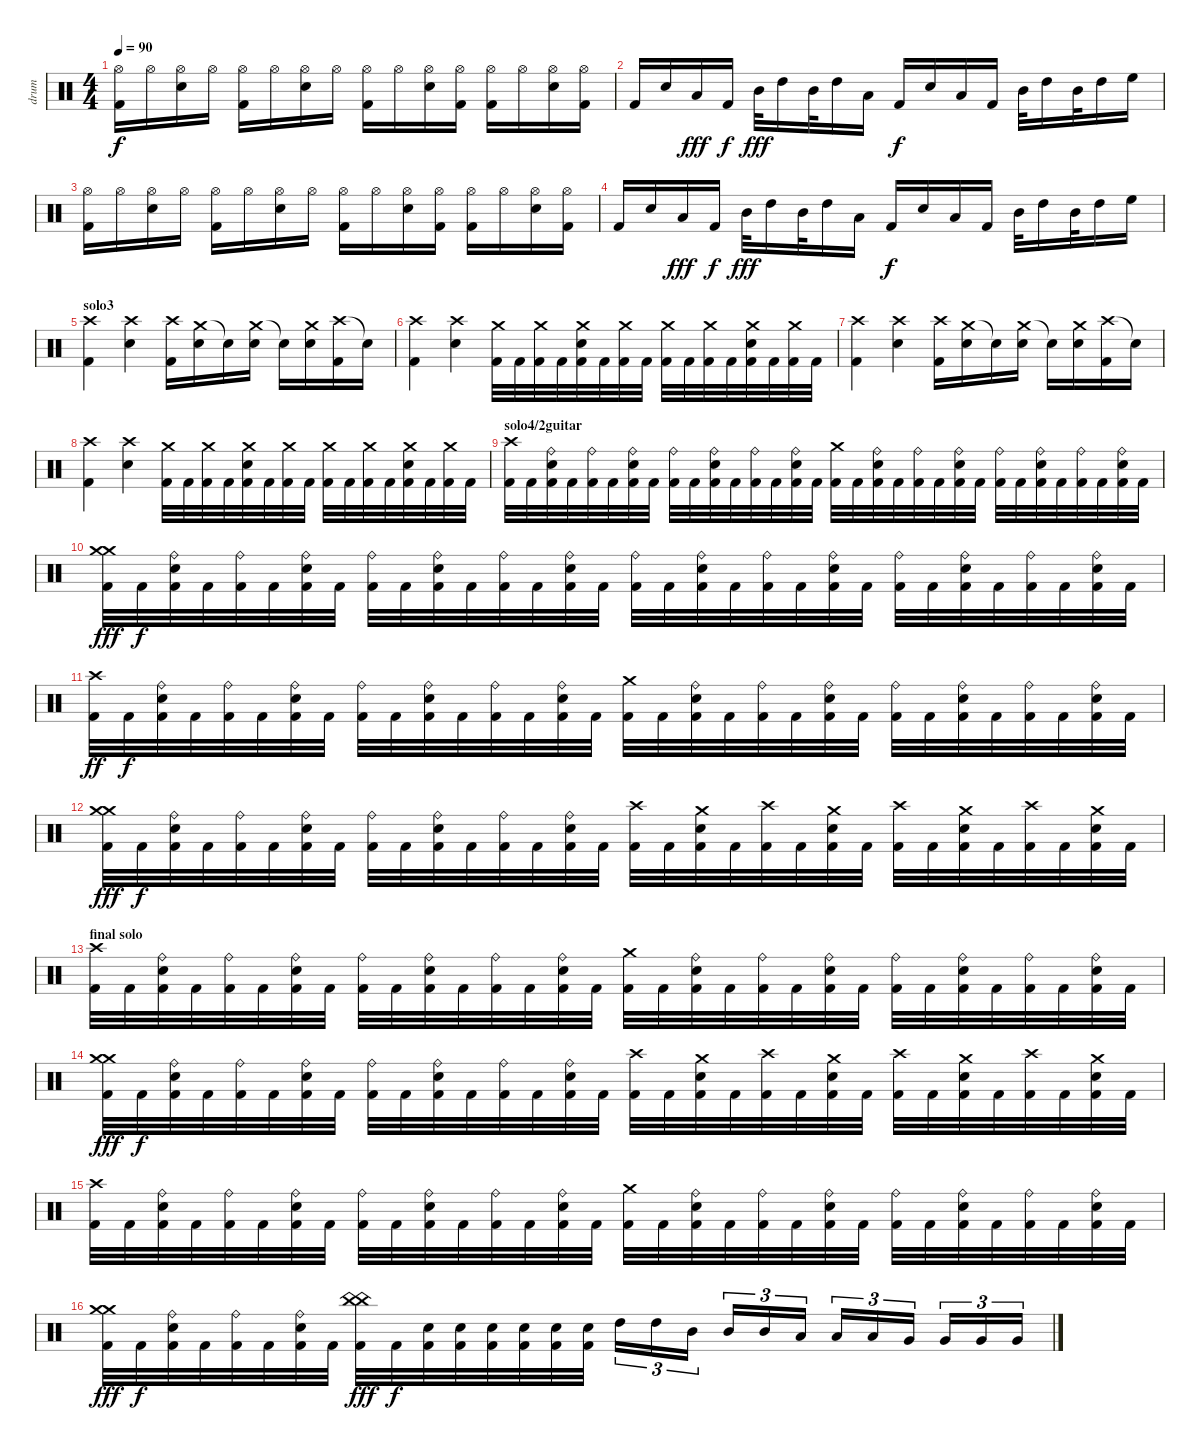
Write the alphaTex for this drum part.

\track ("drum" "drum") {instrument percussion}
\staff {score}
\articulation defaults
\ts (4 4)
\tempo 90
\clef neutral
\ks c
("Hi-Hat (open)" "Kick (hit) 2").16{dy f} "Hi-Hat (open)".16 ("Hi-Hat (open)" "Electric Snare (hit)").16 "Hi-Hat (open)".16 ("Hi-Hat (open)" "Kick (hit) 2").16 "Hi-Hat (open)".16 ("Hi-Hat (open)" "Electric Snare (hit)").16 "Hi-Hat (open)".16 ("Hi-Hat (open)" "Kick (hit) 2").16 "Hi-Hat (open)".16 ("Hi-Hat (open)" "Electric Snare (hit)").16 ("Hi-Hat (open)" "Kick (hit) 2").16 ("Hi-Hat (open)" "Kick (hit) 2").16 "Hi-Hat (open)".16 ("Hi-Hat (open)" "Electric Snare (hit)").16 ("Hi-Hat (open)" "Kick (hit) 2").16 |
"Kick (hit) 2".16 "Electric Snare (hit)".16 "Low Tom (hit)".16{dy fff} "Kick (hit) 2".16{dy f} "Mid Tom (hit)".32{dy fff} "High Tom (hit)".16 "Mid Tom (hit)".32 "High Tom (hit)".16 "Low Tom (hit)".16 "Kick (hit) 2".16{dy f} "Electric Snare (hit)".16 "Low Tom (hit)".16 "Kick (hit) 2".16 "Mid Tom (hit)".32 "High Tom (hit)".16 "Mid Tom (hit)".32 "High Tom (hit)".16 "High Floor Tom (hit)".16 |
("Hi-Hat (open)" "Kick (hit) 2").16 "Hi-Hat (open)".16 ("Hi-Hat (open)" "Electric Snare (hit)").16 "Hi-Hat (open)".16 ("Hi-Hat (open)" "Kick (hit) 2").16 "Hi-Hat (open)".16 ("Hi-Hat (open)" "Electric Snare (hit)").16 "Hi-Hat (open)".16 ("Hi-Hat (open)" "Kick (hit) 2").16 "Hi-Hat (open)".16 ("Hi-Hat (open)" "Electric Snare (hit)").16 ("Hi-Hat (open)" "Kick (hit) 2").16 ("Hi-Hat (open)" "Kick (hit) 2").16 "Hi-Hat (open)".16 ("Hi-Hat (open)" "Electric Snare (hit)").16 ("Hi-Hat (open)" "Kick (hit) 2").16 |
"Kick (hit) 2".16 "Electric Snare (hit)".16 "Low Tom (hit)".16{dy fff} "Kick (hit) 2".16{dy f} "Mid Tom (hit)".32{dy fff} "High Tom (hit)".16 "Mid Tom (hit)".32 "High Tom (hit)".16 "Low Tom (hit)".16 "Kick (hit) 2".16{dy f} "Electric Snare (hit)".16 "Low Tom (hit)".16 "Kick (hit) 2".16 "Mid Tom (hit)".32 "High Tom (hit)".16 "Mid Tom (hit)".32 "High Tom (hit)".16 "High Floor Tom (hit)".16 |
\section ("" "solo3")
("Crash high (hit)" "Kick (hit) 2").4 ("Crash high (hit)" "Electric Snare (hit)").4 ("Crash high (hit)" "Kick (hit) 2").16 ("Crash medium (hit)" "Electric Snare (hit)").16 "Snare (hit)"{t}.16 ("Crash medium (hit)" "Electric Snare (hit)").16 "Snare (hit)"{t}.16 ("Crash medium (hit)" "Electric Snare (hit)").16 ("Crash high (hit)" "Kick (hit) 2").16 "Snare (hit)"{t}.16 |
("Crash high (hit)" "Kick (hit) 2").4 ("Crash high (hit)" "Electric Snare (hit)").4 ("Crash medium (hit)" "Kick (hit) 2").32 "Kick (hit) 2".32 ("Crash medium (hit)" "Kick (hit) 2").32 "Kick (hit) 2".32 ("Crash medium (hit)" "Electric Snare (hit)" "Kick (hit) 2").32 "Kick (hit) 2".32 ("Crash medium (hit)" "Kick (hit) 2").32 "Kick (hit) 2".32 ("Crash medium (hit)" "Kick (hit) 2").32 "Kick (hit) 2".32 ("Crash medium (hit)" "Kick (hit) 2").32 "Kick (hit) 2".32 ("Crash medium (hit)" "Electric Snare (hit)" "Kick (hit) 2").32 "Kick (hit) 2".32 ("Crash medium (hit)" "Kick (hit) 2").32 "Kick (hit) 2".32 |
("Crash high (hit)" "Kick (hit) 2").4 ("Crash high (hit)" "Electric Snare (hit)").4 ("Crash high (hit)" "Kick (hit) 2").16 ("Crash medium (hit)" "Electric Snare (hit)").16 "Snare (hit)"{t}.16 ("Crash medium (hit)" "Electric Snare (hit)").16 "Snare (hit)"{t}.16 ("Crash medium (hit)" "Electric Snare (hit)").16 ("Crash high (hit)" "Kick (hit) 2").16 "Snare (hit)"{t}.16 |
("Crash high (hit)" "Kick (hit) 2").4 ("Crash high (hit)" "Electric Snare (hit)").4 ("Crash medium (hit)" "Kick (hit) 2").32 "Kick (hit) 2".32 ("Crash medium (hit)" "Kick (hit) 2").32 "Kick (hit) 2".32 ("Crash medium (hit)" "Electric Snare (hit)" "Kick (hit) 2").32 "Kick (hit) 2".32 ("Crash medium (hit)" "Kick (hit) 2").32 "Kick (hit) 2".32 ("Crash medium (hit)" "Kick (hit) 2").32 "Kick (hit) 2".32 ("Crash medium (hit)" "Kick (hit) 2").32 "Kick (hit) 2".32 ("Crash medium (hit)" "Electric Snare (hit)" "Kick (hit) 2").32 "Kick (hit) 2".32 ("Crash medium (hit)" "Kick (hit) 2").32 "Kick (hit) 2".32 |
\section ("" "solo4/2guitar")
("Crash high (hit)" "Kick (hit) 2").32 "Kick (hit) 2".32 ("Ride (bell)" "Electric Snare (hit)" "Kick (hit) 2").32 "Kick (hit) 2".32 ("Ride (bell)" "Kick (hit) 2").32 "Kick (hit) 2".32 ("Ride (bell)" "Electric Snare (hit)" "Kick (hit) 2").32 "Kick (hit) 2".32 ("Ride (bell)" "Kick (hit) 2").32 "Kick (hit) 2".32 ("Ride (bell)" "Electric Snare (hit)" "Kick (hit) 2").32 "Kick (hit) 2".32 ("Ride (bell)" "Kick (hit) 2").32 "Kick (hit) 2".32 ("Ride (bell)" "Electric Snare (hit)" "Kick (hit) 2").32 "Kick (hit) 2".32 ("Crash medium (hit)" "Kick (hit) 2").32 "Kick (hit) 2".32 ("Ride (bell)" "Electric Snare (hit)" "Kick (hit) 2").32 "Kick (hit) 2".32 ("Ride (bell)" "Kick (hit) 2").32 "Kick (hit) 2".32 ("Ride (bell)" "Electric Snare (hit)" "Kick (hit) 2").32 "Kick (hit) 2".32 ("Ride (bell)" "Kick (hit) 2").32 "Kick (hit) 2".32 ("Ride (bell)" "Electric Snare (hit)" "Kick (hit) 2").32 "Kick (hit) 2".32 ("Ride (bell)" "Kick (hit) 2").32 "Kick (hit) 2".32 ("Ride (bell)" "Electric Snare (hit)" "Kick (hit) 2").32 "Kick (hit) 2".32 |
("Crash medium (hit)" "Crash medium (hit)" "Kick (hit) 2").32{dy fff} "Kick (hit) 2".32{dy f} ("Ride (bell)" "Electric Snare (hit)" "Kick (hit) 2").32 "Kick (hit) 2".32 ("Ride (bell)" "Kick (hit) 2").32 "Kick (hit) 2".32 ("Ride (bell)" "Electric Snare (hit)" "Kick (hit) 2").32 "Kick (hit) 2".32 ("Ride (bell)" "Kick (hit) 2").32 "Kick (hit) 2".32 ("Ride (bell)" "Electric Snare (hit)" "Kick (hit) 2").32 "Kick (hit) 2".32 ("Ride (bell)" "Kick (hit) 2").32 "Kick (hit) 2".32 ("Ride (bell)" "Electric Snare (hit)" "Kick (hit) 2").32 "Kick (hit) 2".32 ("Ride (bell)" "Kick (hit) 2").32 "Kick (hit) 2".32 ("Ride (bell)" "Electric Snare (hit)" "Kick (hit) 2").32 "Kick (hit) 2".32 ("Ride (bell)" "Kick (hit) 2").32 "Kick (hit) 2".32 ("Ride (bell)" "Electric Snare (hit)" "Kick (hit) 2").32 "Kick (hit) 2".32 ("Ride (bell)" "Kick (hit) 2").32 "Kick (hit) 2".32 ("Ride (bell)" "Electric Snare (hit)" "Kick (hit) 2").32 "Kick (hit) 2".32 ("Ride (bell)" "Kick (hit) 2").32 "Kick (hit) 2".32 ("Ride (bell)" "Electric Snare (hit)" "Kick (hit) 2").32 "Kick (hit) 2".32 |
("Crash high (hit)" "Kick (hit) 2").32{dy ff} "Kick (hit) 2".32{dy f} ("Ride (bell)" "Electric Snare (hit)" "Kick (hit) 2").32 "Kick (hit) 2".32 ("Ride (bell)" "Kick (hit) 2").32 "Kick (hit) 2".32 ("Ride (bell)" "Electric Snare (hit)" "Kick (hit) 2").32 "Kick (hit) 2".32 ("Ride (bell)" "Kick (hit) 2").32 "Kick (hit) 2".32 ("Ride (bell)" "Electric Snare (hit)" "Kick (hit) 2").32 "Kick (hit) 2".32 ("Ride (bell)" "Kick (hit) 2").32 "Kick (hit) 2".32 ("Ride (bell)" "Electric Snare (hit)" "Kick (hit) 2").32 "Kick (hit) 2".32 ("Crash medium (hit)" "Kick (hit) 2").32 "Kick (hit) 2".32 ("Ride (bell)" "Electric Snare (hit)" "Kick (hit) 2").32 "Kick (hit) 2".32 ("Ride (bell)" "Kick (hit) 2").32 "Kick (hit) 2".32 ("Ride (bell)" "Electric Snare (hit)" "Kick (hit) 2").32 "Kick (hit) 2".32 ("Ride (bell)" "Kick (hit) 2").32 "Kick (hit) 2".32 ("Ride (bell)" "Electric Snare (hit)" "Kick (hit) 2").32 "Kick (hit) 2".32 ("Ride (bell)" "Kick (hit) 2").32 "Kick (hit) 2".32 ("Ride (bell)" "Electric Snare (hit)" "Kick (hit) 2").32 "Kick (hit) 2".32 |
("Crash medium (hit)" "Crash medium (hit)" "Kick (hit) 2").32{dy fff} "Kick (hit) 2".32{dy f} ("Ride (bell)" "Electric Snare (hit)" "Kick (hit) 2").32 "Kick (hit) 2".32 ("Ride (bell)" "Kick (hit) 2").32 "Kick (hit) 2".32 ("Ride (bell)" "Electric Snare (hit)" "Kick (hit) 2").32 "Kick (hit) 2".32 ("Ride (bell)" "Kick (hit) 2").32 "Kick (hit) 2".32 ("Ride (bell)" "Electric Snare (hit)" "Kick (hit) 2").32 "Kick (hit) 2".32 ("Ride (bell)" "Kick (hit) 2").32 "Kick (hit) 2".32 ("Ride (bell)" "Electric Snare (hit)" "Kick (hit) 2").32 "Kick (hit) 2".32 ("Crash high (hit)" "Kick (hit) 2").32 "Kick (hit) 2".32 ("Crash medium (hit)" "Electric Snare (hit)" "Kick (hit) 2").32 "Kick (hit) 2".32 ("Crash high (hit)" "Kick (hit) 2").32 "Kick (hit) 2".32 ("Crash medium (hit)" "Electric Snare (hit)" "Kick (hit) 2").32 "Kick (hit) 2".32 ("Crash high (hit)" "Kick (hit) 2").32 "Kick (hit) 2".32 ("Crash medium (hit)" "Electric Snare (hit)" "Kick (hit) 2").32 "Kick (hit) 2".32 ("Crash high (hit)" "Kick (hit) 2").32 "Kick (hit) 2".32 ("Crash medium (hit)" "Electric Snare (hit)" "Kick (hit) 2").32 "Kick (hit) 2".32 |
\section ("" "final solo")
("Crash high (hit)" "Kick (hit) 2").32 "Kick (hit) 2".32 ("Ride (bell)" "Electric Snare (hit)" "Kick (hit) 2").32 "Kick (hit) 2".32 ("Ride (bell)" "Kick (hit) 2").32 "Kick (hit) 2".32 ("Ride (bell)" "Electric Snare (hit)" "Kick (hit) 2").32 "Kick (hit) 2".32 ("Ride (bell)" "Kick (hit) 2").32 "Kick (hit) 2".32 ("Ride (bell)" "Electric Snare (hit)" "Kick (hit) 2").32 "Kick (hit) 2".32 ("Ride (bell)" "Kick (hit) 2").32 "Kick (hit) 2".32 ("Ride (bell)" "Electric Snare (hit)" "Kick (hit) 2").32 "Kick (hit) 2".32 ("Crash medium (hit)" "Kick (hit) 2").32 "Kick (hit) 2".32 ("Ride (bell)" "Electric Snare (hit)" "Kick (hit) 2").32 "Kick (hit) 2".32 ("Ride (bell)" "Kick (hit) 2").32 "Kick (hit) 2".32 ("Ride (bell)" "Electric Snare (hit)" "Kick (hit) 2").32 "Kick (hit) 2".32 ("Ride (bell)" "Kick (hit) 2").32 "Kick (hit) 2".32 ("Ride (bell)" "Electric Snare (hit)" "Kick (hit) 2").32 "Kick (hit) 2".32 ("Ride (bell)" "Kick (hit) 2").32 "Kick (hit) 2".32 ("Ride (bell)" "Electric Snare (hit)" "Kick (hit) 2").32 "Kick (hit) 2".32 |
("Crash medium (hit)" "Crash medium (hit)" "Kick (hit) 2").32{dy fff} "Kick (hit) 2".32{dy f} ("Ride (bell)" "Electric Snare (hit)" "Kick (hit) 2").32 "Kick (hit) 2".32 ("Ride (bell)" "Kick (hit) 2").32 "Kick (hit) 2".32 ("Ride (bell)" "Electric Snare (hit)" "Kick (hit) 2").32 "Kick (hit) 2".32 ("Ride (bell)" "Kick (hit) 2").32 "Kick (hit) 2".32 ("Ride (bell)" "Electric Snare (hit)" "Kick (hit) 2").32 "Kick (hit) 2".32 ("Ride (bell)" "Kick (hit) 2").32 "Kick (hit) 2".32 ("Ride (bell)" "Electric Snare (hit)" "Kick (hit) 2").32 "Kick (hit) 2".32 ("Crash high (hit)" "Kick (hit) 2").32 "Kick (hit) 2".32 ("Crash medium (hit)" "Electric Snare (hit)" "Kick (hit) 2").32 "Kick (hit) 2".32 ("Crash high (hit)" "Kick (hit) 2").32 "Kick (hit) 2".32 ("Crash medium (hit)" "Electric Snare (hit)" "Kick (hit) 2").32 "Kick (hit) 2".32 ("Crash high (hit)" "Kick (hit) 2").32 "Kick (hit) 2".32 ("Crash medium (hit)" "Electric Snare (hit)" "Kick (hit) 2").32 "Kick (hit) 2".32 ("Crash high (hit)" "Kick (hit) 2").32 "Kick (hit) 2".32 ("Crash medium (hit)" "Electric Snare (hit)" "Kick (hit) 2").32 "Kick (hit) 2".32 |
("Crash high (hit)" "Kick (hit) 2").32 "Kick (hit) 2".32 ("Ride (bell)" "Electric Snare (hit)" "Kick (hit) 2").32 "Kick (hit) 2".32 ("Ride (bell)" "Kick (hit) 2").32 "Kick (hit) 2".32 ("Ride (bell)" "Electric Snare (hit)" "Kick (hit) 2").32 "Kick (hit) 2".32 ("Ride (bell)" "Kick (hit) 2").32 "Kick (hit) 2".32 ("Ride (bell)" "Electric Snare (hit)" "Kick (hit) 2").32 "Kick (hit) 2".32 ("Ride (bell)" "Kick (hit) 2").32 "Kick (hit) 2".32 ("Ride (bell)" "Electric Snare (hit)" "Kick (hit) 2").32 "Kick (hit) 2".32 ("Crash medium (hit)" "Kick (hit) 2").32 "Kick (hit) 2".32 ("Ride (bell)" "Electric Snare (hit)" "Kick (hit) 2").32 "Kick (hit) 2".32 ("Ride (bell)" "Kick (hit) 2").32 "Kick (hit) 2".32 ("Ride (bell)" "Electric Snare (hit)" "Kick (hit) 2").32 "Kick (hit) 2".32 ("Ride (bell)" "Kick (hit) 2").32 "Kick (hit) 2".32 ("Ride (bell)" "Electric Snare (hit)" "Kick (hit) 2").32 "Kick (hit) 2".32 ("Ride (bell)" "Kick (hit) 2").32 "Kick (hit) 2".32 ("Ride (bell)" "Electric Snare (hit)" "Kick (hit) 2").32 "Kick (hit) 2".32 |
("Crash medium (hit)" "Crash medium (hit)" "Kick (hit) 2").32{dy fff} "Kick (hit) 2".32{dy f} ("Ride (bell)" "Electric Snare (hit)" "Kick (hit) 2").32 "Kick (hit) 2".32 ("Ride (bell)" "Kick (hit) 2").32 "Kick (hit) 2".32 ("Ride (bell)" "Electric Snare (hit)" "Kick (hit) 2").32 "Kick (hit) 2".32 ("China (hit)" "China (hit)" "Kick (hit) 2").32{dy fff} "Kick (hit) 2".32{dy f} ("Electric Snare (hit)" "Kick (hit) 2").32 ("Electric Snare (hit)" "Kick (hit) 2").32 ("Electric Snare (hit)" "Kick (hit) 2").32 ("Electric Snare (hit)" "Kick (hit) 2").32 ("Electric Snare (hit)" "Kick (hit) 2").32 ("Electric Snare (hit)" "Kick (hit) 2").32 "High Tom (hit)".16{tu (3 2)} "High Tom (hit)".16{tu (3 2)} "Mid Tom (hit)".16{tu (3 2)} "Mid Tom (hit)".16{tu (3 2)} "Mid Tom (hit)".16{tu (3 2)} "Low Tom (hit)".16{tu (3 2)} "Low Tom (hit)".16{tu (3 2)} "Low Tom (hit)".16{tu (3 2)} "Very Low Tom (hit)".16{tu (3 2)} "Very Low Tom (hit)".16{tu (3 2)} "Very Low Tom (hit)".16{tu (3 2)} "Very Low Tom (hit)".16{tu (3 2)}
